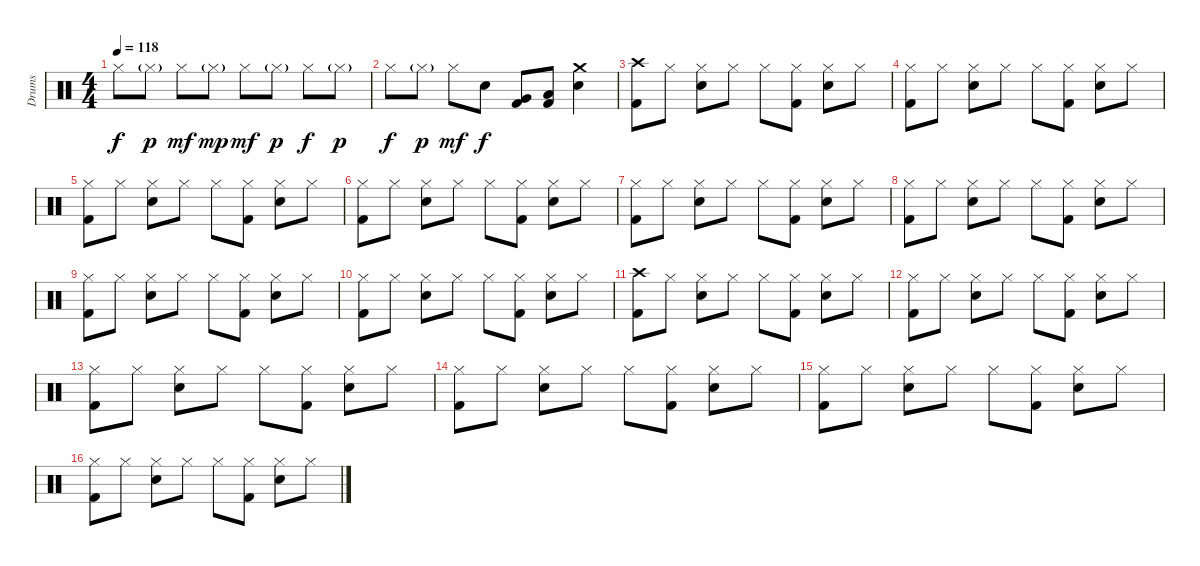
\track ("Drums" "Drums") {instrument percussion}
\staff {score}
\articulation defaults
\ts (4 4)
\tempo 118
\clef neutral
\ks c "Hi-Hat (closed)".8{dy f} "Hi-Hat (closed)"{g}.8{dy p} "Hi-Hat (closed)".8{dy mf} "Hi-Hat (closed)"{g}.8{dy mp} "Hi-Hat (closed)".8{dy mf} "Hi-Hat (closed)"{g}.8{dy p} "Hi-Hat (closed)".8{dy f} "Hi-Hat (closed)"{g}.8{dy p}
|
"Hi-Hat (closed)".8{dy f} "Hi-Hat (closed)"{g}.8{dy p} "Hi-Hat (closed)".8{dy mf} "Electric Snare (hit)".8{dy f} ("Very Low Tom (hit)" "Kick (hit) 2").8 ("Low Floor Tom (hit)" "Kick (hit) 2").8 ("Crash medium (hit)" "Electric Snare (hit)").4 |
("Crash high (hit)" "Kick (hit) 2").8 "Hi-Hat (closed)".8 ("Hi-Hat (closed)" "Electric Snare (hit)").8 "Hi-Hat (closed)".8 "Hi-Hat (closed)".8 ("Hi-Hat (closed)" "Kick (hit) 2").8 ("Hi-Hat (closed)" "Electric Snare (hit)").8 "Hi-Hat (closed)".8 |
("Hi-Hat (closed)" "Kick (hit) 2").8 "Hi-Hat (closed)".8 ("Hi-Hat (closed)" "Electric Snare (hit)").8 "Hi-Hat (closed)".8 "Hi-Hat (closed)".8 ("Hi-Hat (closed)" "Kick (hit) 2").8 ("Hi-Hat (closed)" "Electric Snare (hit)").8 "Hi-Hat (closed)".8 |
("Hi-Hat (closed)" "Kick (hit) 2").8 "Hi-Hat (closed)".8 ("Hi-Hat (closed)" "Electric Snare (hit)").8 "Hi-Hat (closed)".8 "Hi-Hat (closed)".8 ("Hi-Hat (closed)" "Kick (hit) 2").8 ("Hi-Hat (closed)" "Electric Snare (hit)").8 "Hi-Hat (closed)".8 |
("Hi-Hat (closed)" "Kick (hit) 2").8 "Hi-Hat (closed)".8 ("Hi-Hat (closed)" "Electric Snare (hit)").8 "Hi-Hat (closed)".8 "Hi-Hat (closed)".8 ("Hi-Hat (closed)" "Kick (hit) 2").8 ("Hi-Hat (closed)" "Electric Snare (hit)").8 "Hi-Hat (closed)".8 |
("Hi-Hat (closed)" "Kick (hit) 2").8 "Hi-Hat (closed)".8 ("Hi-Hat (closed)" "Electric Snare (hit)").8 "Hi-Hat (closed)".8 "Hi-Hat (closed)".8 ("Hi-Hat (closed)" "Kick (hit) 2").8 ("Hi-Hat (closed)" "Electric Snare (hit)").8 "Hi-Hat (closed)".8 |
("Hi-Hat (closed)" "Kick (hit) 2").8 "Hi-Hat (closed)".8 ("Hi-Hat (closed)" "Electric Snare (hit)").8 "Hi-Hat (closed)".8 "Hi-Hat (closed)".8 ("Hi-Hat (closed)" "Kick (hit) 2").8 ("Hi-Hat (closed)" "Electric Snare (hit)").8 "Hi-Hat (closed)".8 |
("Hi-Hat (closed)" "Kick (hit) 2").8 "Hi-Hat (closed)".8 ("Hi-Hat (closed)" "Electric Snare (hit)").8 "Hi-Hat (closed)".8 "Hi-Hat (closed)".8 ("Hi-Hat (closed)" "Kick (hit) 2").8 ("Hi-Hat (closed)" "Electric Snare (hit)").8 "Hi-Hat (closed)".8 |
("Hi-Hat (closed)" "Kick (hit) 2").8 "Hi-Hat (closed)".8 ("Hi-Hat (closed)" "Electric Snare (hit)").8 "Hi-Hat (closed)".8 "Hi-Hat (closed)".8 ("Hi-Hat (closed)" "Kick (hit) 2").8 ("Hi-Hat (closed)" "Electric Snare (hit)").8 "Hi-Hat (closed)".8 |
("Crash high (hit)" "Kick (hit) 2").8 "Hi-Hat (closed)".8 ("Hi-Hat (closed)" "Electric Snare (hit)").8 "Hi-Hat (closed)".8 "Hi-Hat (closed)".8 ("Hi-Hat (closed)" "Kick (hit) 2").8 ("Hi-Hat (closed)" "Electric Snare (hit)").8 "Hi-Hat (closed)".8 |
("Hi-Hat (closed)" "Kick (hit) 2").8 "Hi-Hat (closed)".8 ("Hi-Hat (closed)" "Electric Snare (hit)").8 "Hi-Hat (closed)".8 "Hi-Hat (closed)".8 ("Hi-Hat (closed)" "Kick (hit) 2").8 ("Hi-Hat (closed)" "Electric Snare (hit)").8 "Hi-Hat (closed)".8 |
("Hi-Hat (closed)" "Kick (hit) 2").8 "Hi-Hat (closed)".8 ("Hi-Hat (closed)" "Electric Snare (hit)").8 "Hi-Hat (closed)".8 "Hi-Hat (closed)".8 ("Hi-Hat (closed)" "Kick (hit) 2").8 ("Hi-Hat (closed)" "Electric Snare (hit)").8 "Hi-Hat (closed)".8 |
("Hi-Hat (closed)" "Kick (hit) 2").8 "Hi-Hat (closed)".8 ("Hi-Hat (closed)" "Electric Snare (hit)").8 "Hi-Hat (closed)".8 "Hi-Hat (closed)".8 ("Hi-Hat (closed)" "Kick (hit) 2").8 ("Hi-Hat (closed)" "Electric Snare (hit)").8 "Hi-Hat (closed)".8 |
("Hi-Hat (closed)" "Kick (hit) 2").8 "Hi-Hat (closed)".8 ("Hi-Hat (closed)" "Electric Snare (hit)").8 "Hi-Hat (closed)".8 "Hi-Hat (closed)".8 ("Hi-Hat (closed)" "Kick (hit) 2").8 ("Hi-Hat (closed)" "Electric Snare (hit)").8 "Hi-Hat (closed)".8 |
("Hi-Hat (closed)" "Kick (hit) 2").8 "Hi-Hat (closed)".8 ("Hi-Hat (closed)" "Electric Snare (hit)").8 "Hi-Hat (closed)".8 "Hi-Hat (closed)".8 ("Hi-Hat (closed)" "Kick (hit) 2").8 ("Hi-Hat (closed)" "Electric Snare (hit)").8 "Hi-Hat (closed)".8
